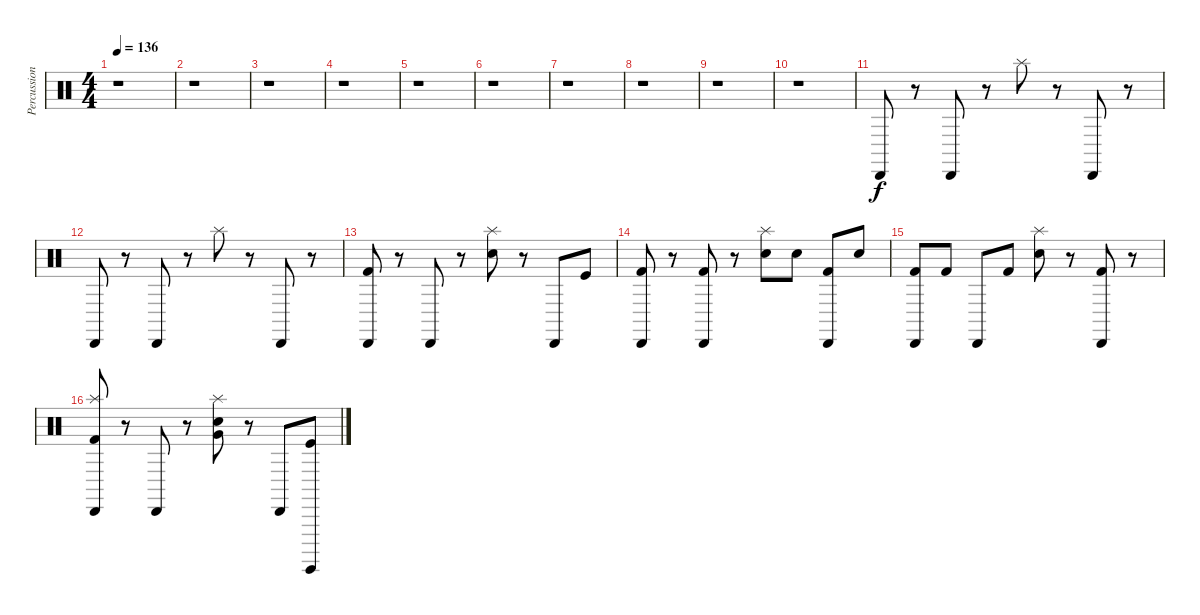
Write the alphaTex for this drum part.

\track ("Percussion 2" "Percussion") {instrument percussion}
\staff {score}
\articulation defaults
\ts (4 4)
\tempo 136
\clef neutral
\ks c
r.1{dy f} |
r.1 |
r.1 |
r.1 |
r.1 |
r.1 |
r.1 |
r.1 |
r.1 |
r.1 |
"Cabasa (hit)".8 r.8 "Cabasa (hit)".8 r.8 "Splash (hit)".8 r.8 "Cabasa (hit)".8 r.8 |
"Cabasa (hit)".8 r.8 "Cabasa (hit)".8 r.8 "Splash (hit)".8 r.8 "Cabasa (hit)".8 r.8 |
("Kick (hit) 2" "Cabasa (hit)").8 r.8 "Cabasa (hit)".8 r.8 ("Snare (hit) 2" "Splash (hit)").8 r.8 "Cabasa (hit)".8 "Kick (hit)".8 |
("Kick (hit) 2" "Cabasa (hit)").8 r.8 ("Kick (hit) 2" "Cabasa (hit)").8 r.8 ("Snare (hit) 2" "Splash (hit)").8 "Snare (hit) 2".8 ("Kick (hit) 2" "Cabasa (hit)").8 "Snare (hit) 2".8 |
("Kick (hit) 2" "Cabasa (hit)").8 "Kick (hit) 2".8 "Cabasa (hit)".8 "Kick (hit) 2".8 ("Snare (hit) 2" "Splash (hit)").8 r.8 ("Kick (hit) 2" "Cabasa (hit)").8 r.8 |
("Kick (hit) 2" "Splash (hit)" "Cabasa (hit)").8 r.8 "Cabasa (hit)".8 r.8 ("Snare (hit) 2" "Very Low Tom (hit)" "Splash (hit)").8 r.8 "Cabasa (hit)".8 ("Kick (hit)" "Surdo (hit)").8
